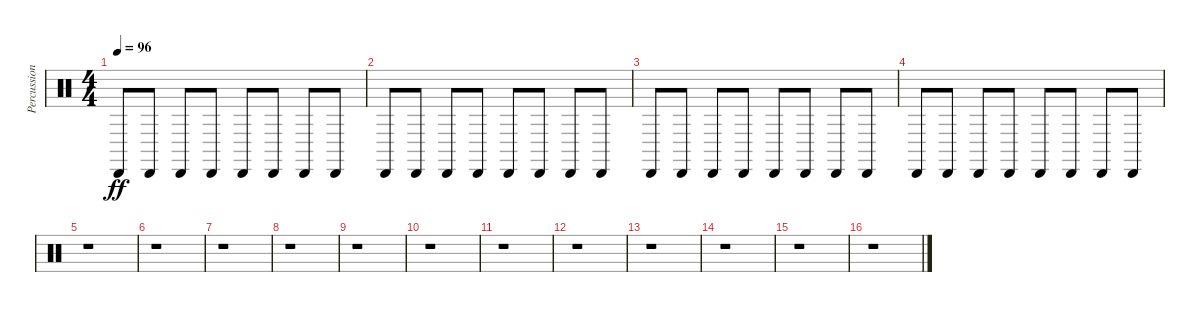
\track ("Percussion 2" "Percussion") {instrument percussion}
\staff {score}
\articulation defaults
\ts (4 4)
\tempo 96
\clef neutral
\ks c "Cabasa (hit)".8{dy ff} "Cabasa (hit)".8 "Cabasa (hit)".8 "Cabasa (hit)".8 "Cabasa (hit)".8 "Cabasa (hit)".8 "Cabasa (hit)".8 "Cabasa (hit)".8
|
"Cabasa (hit)".8 "Cabasa (hit)".8 "Cabasa (hit)".8 "Cabasa (hit)".8 "Cabasa (hit)".8 "Cabasa (hit)".8 "Cabasa (hit)".8 "Cabasa (hit)".8 |
"Cabasa (hit)".8 "Cabasa (hit)".8 "Cabasa (hit)".8 "Cabasa (hit)".8 "Cabasa (hit)".8 "Cabasa (hit)".8 "Cabasa (hit)".8 "Cabasa (hit)".8 |
"Cabasa (hit)".8 "Cabasa (hit)".8 "Cabasa (hit)".8 "Cabasa (hit)".8 "Cabasa (hit)".8 "Cabasa (hit)".8 "Cabasa (hit)".8 "Cabasa (hit)".8 |
r.1 |
r.1 |
r.1 |
r.1 |
r.1 |
r.1 |
r.1 |
r.1 |
r.1 |
r.1 |
r.1 |
r.1
